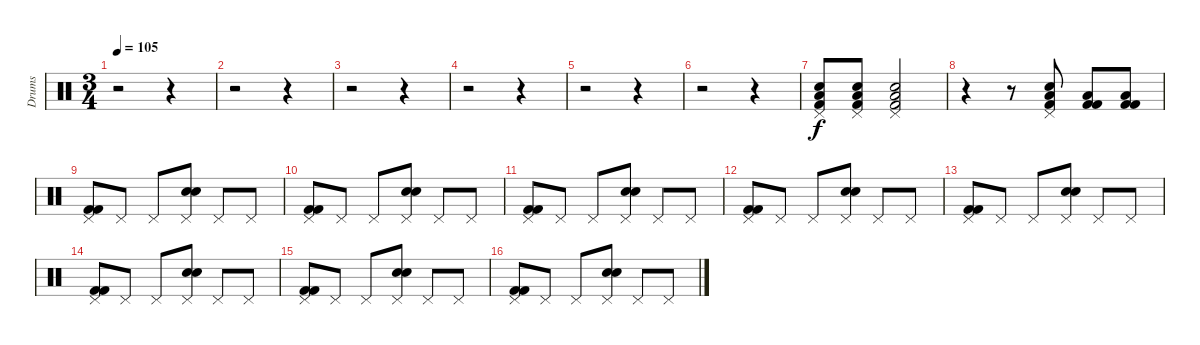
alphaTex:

\track ("Drums" "Drums") {instrument percussion}
\staff {score}
\articulation defaults
\ts (3 4)
\tempo 105
\clef neutral
\ks c
r.2{dy f} r.4 |
r.2 r.4 |
r.2 r.4 |
r.2 r.4 |
r.2 r.4 |
r.2 r.4 |
("Low Tom (hit)" "Pedal Hi-Hat (hit)" "Snare (hit) 2" "Kick (hit) 2").8 ("Low Tom (hit)" "Pedal Hi-Hat (hit)" "Snare (hit) 2" "Kick (hit) 2").8 ("Low Tom (hit)" "Pedal Hi-Hat (hit)" "Snare (hit) 2" "Kick (hit) 2").2 |
r.4 r.8 ("Low Tom (hit)" "Pedal Hi-Hat (hit)" "Snare (hit) 2" "Kick (hit) 2").8 ("Low Tom (hit)" "Kick (hit) 2" "Kick (hit) 2").8 ("Low Tom (hit)" "Kick (hit) 2" "Kick (hit) 2").8 |
("Pedal Hi-Hat (hit)" "Kick (hit) 2" "Kick (hit) 2").8 "Pedal Hi-Hat (hit)".8 "Pedal Hi-Hat (hit)".8 ("Pedal Hi-Hat (hit)" "Electric Snare (hit)" "Electric Snare (hit)").8 "Pedal Hi-Hat (hit)".8 "Pedal Hi-Hat (hit)".8 |
("Pedal Hi-Hat (hit)" "Kick (hit) 2" "Kick (hit) 2").8 "Pedal Hi-Hat (hit)".8 "Pedal Hi-Hat (hit)".8 ("Pedal Hi-Hat (hit)" "Electric Snare (hit)" "Electric Snare (hit)").8 "Pedal Hi-Hat (hit)".8 "Pedal Hi-Hat (hit)".8 |
("Pedal Hi-Hat (hit)" "Kick (hit) 2" "Kick (hit) 2").8 "Pedal Hi-Hat (hit)".8 "Pedal Hi-Hat (hit)".8 ("Pedal Hi-Hat (hit)" "Electric Snare (hit)" "Electric Snare (hit)").8 "Pedal Hi-Hat (hit)".8 "Pedal Hi-Hat (hit)".8 |
("Pedal Hi-Hat (hit)" "Kick (hit) 2" "Kick (hit) 2").8 "Pedal Hi-Hat (hit)".8 "Pedal Hi-Hat (hit)".8 ("Pedal Hi-Hat (hit)" "Electric Snare (hit)" "Electric Snare (hit)").8 "Pedal Hi-Hat (hit)".8 "Pedal Hi-Hat (hit)".8 |
("Pedal Hi-Hat (hit)" "Kick (hit) 2" "Kick (hit) 2").8 "Pedal Hi-Hat (hit)".8 "Pedal Hi-Hat (hit)".8 ("Pedal Hi-Hat (hit)" "Electric Snare (hit)" "Electric Snare (hit)").8 "Pedal Hi-Hat (hit)".8 "Pedal Hi-Hat (hit)".8 |
("Pedal Hi-Hat (hit)" "Kick (hit) 2" "Kick (hit) 2").8 "Pedal Hi-Hat (hit)".8 "Pedal Hi-Hat (hit)".8 ("Pedal Hi-Hat (hit)" "Electric Snare (hit)" "Electric Snare (hit)").8 "Pedal Hi-Hat (hit)".8 "Pedal Hi-Hat (hit)".8 |
("Pedal Hi-Hat (hit)" "Kick (hit) 2" "Kick (hit) 2").8 "Pedal Hi-Hat (hit)".8 "Pedal Hi-Hat (hit)".8 ("Pedal Hi-Hat (hit)" "Electric Snare (hit)" "Electric Snare (hit)").8 "Pedal Hi-Hat (hit)".8 "Pedal Hi-Hat (hit)".8 |
("Pedal Hi-Hat (hit)" "Kick (hit) 2" "Kick (hit) 2").8 "Pedal Hi-Hat (hit)".8 "Pedal Hi-Hat (hit)".8 ("Pedal Hi-Hat (hit)" "Electric Snare (hit)" "Electric Snare (hit)").8 "Pedal Hi-Hat (hit)".8 "Pedal Hi-Hat (hit)".8
